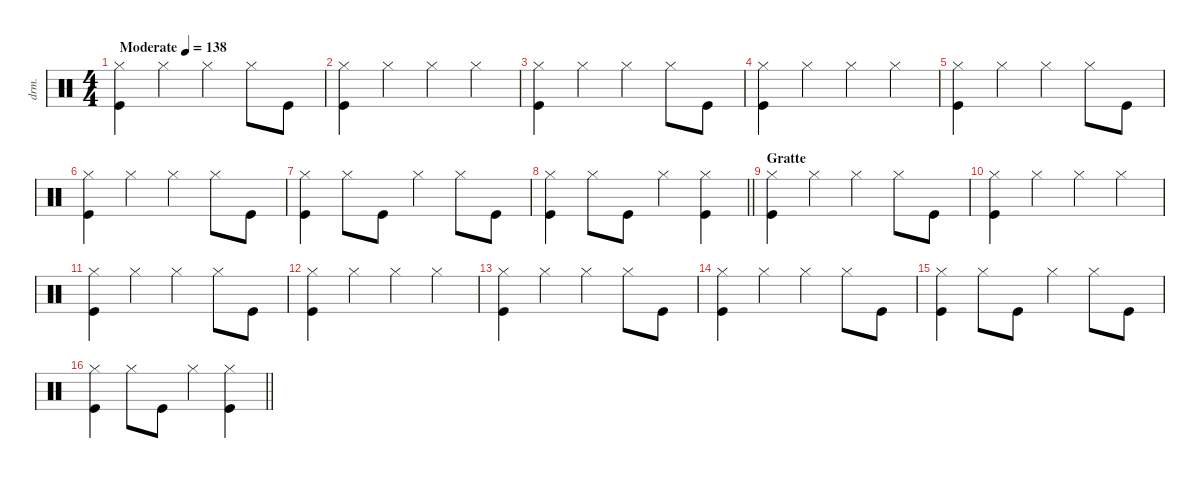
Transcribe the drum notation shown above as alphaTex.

\defaultSystemsLayout 4
\hideDynamics
\bracketExtendMode nobrackets
\track ("Percussions" "drm.") {instrument percussion}
\staff {score}
\articulation defaults
\ts (4 4)
\beaming (8 2 2 2 2)
\tempo (138 "Moderate")
\clef neutral
\ks aminor
("Hi-Hat (closed)" "Kick (hit)").4{dy f beam Down} "Hi-Hat (closed)".4{beam Down} "Hi-Hat (closed)".4{beam Down} "Hi-Hat (closed)".8{beam Down} "Kick (hit)".8{beam Down} |
("Hi-Hat (closed)" "Kick (hit)").4{beam Down} "Hi-Hat (closed)".4{beam Down} "Hi-Hat (closed)".4{beam Down} "Hi-Hat (closed)".4{beam Down} |
("Hi-Hat (closed)" "Kick (hit)").4{beam Down} "Hi-Hat (closed)".4{beam Down} "Hi-Hat (closed)".4{beam Down} "Hi-Hat (closed)".8{beam Down} "Kick (hit)".8{beam Down} |
("Hi-Hat (closed)" "Kick (hit)").4{beam Down} "Hi-Hat (closed)".4{beam Down} "Hi-Hat (closed)".4{beam Down} "Hi-Hat (closed)".4{beam Down} |
("Hi-Hat (closed)" "Kick (hit)").4{beam Down} "Hi-Hat (closed)".4{beam Down} "Hi-Hat (closed)".4{beam Down} "Hi-Hat (closed)".8{beam Down} "Kick (hit)".8{beam Down} |
("Hi-Hat (closed)" "Kick (hit)").4{beam Down} "Hi-Hat (closed)".4{beam Down} "Hi-Hat (closed)".4{beam Down} "Hi-Hat (closed)".8{beam Down} "Kick (hit)".8{beam Down} |
("Hi-Hat (closed)" "Kick (hit)").4{beam Down} "Hi-Hat (closed)".8{beam Down} "Kick (hit)".8{beam Down} "Hi-Hat (closed)".4{beam Down} "Hi-Hat (closed)".8{beam Down} "Kick (hit)".8{beam Down} |
\barLineRight lightlight
("Hi-Hat (closed)" "Kick (hit)").4{beam Down} "Hi-Hat (closed)".8{beam Down} "Kick (hit)".8{beam Down} "Hi-Hat (closed)".4{beam Down} ("Hi-Hat (closed)" "Kick (hit)").4{beam Down} |
\section ("" "Gratte")
("Hi-Hat (closed)" "Kick (hit)").4{beam Down} "Hi-Hat (closed)".4{beam Down} "Hi-Hat (closed)".4{beam Down} "Hi-Hat (closed)".8{beam Down} "Kick (hit)".8{beam Down} |
("Hi-Hat (closed)" "Kick (hit)").4{beam Down} "Hi-Hat (closed)".4{beam Down} "Hi-Hat (closed)".4{beam Down} "Hi-Hat (closed)".4{beam Down} |
("Hi-Hat (closed)" "Kick (hit)").4{beam Down} "Hi-Hat (closed)".4{beam Down} "Hi-Hat (closed)".4{beam Down} "Hi-Hat (closed)".8{beam Down} "Kick (hit)".8{beam Down} |
("Hi-Hat (closed)" "Kick (hit)").4{beam Down} "Hi-Hat (closed)".4{beam Down} "Hi-Hat (closed)".4{beam Down} "Hi-Hat (closed)".4{beam Down} |
("Hi-Hat (closed)" "Kick (hit)").4{beam Down} "Hi-Hat (closed)".4{beam Down} "Hi-Hat (closed)".4{beam Down} "Hi-Hat (closed)".8{beam Down} "Kick (hit)".8{beam Down} |
("Hi-Hat (closed)" "Kick (hit)").4{beam Down} "Hi-Hat (closed)".4{beam Down} "Hi-Hat (closed)".4{beam Down} "Hi-Hat (closed)".8{beam Down} "Kick (hit)".8{beam Down} |
("Hi-Hat (closed)" "Kick (hit)").4{beam Down} "Hi-Hat (closed)".8{beam Down} "Kick (hit)".8{beam Down} "Hi-Hat (closed)".4{beam Down} "Hi-Hat (closed)".8{beam Down} "Kick (hit)".8{beam Down} |
\barLineRight lightlight
("Hi-Hat (closed)" "Kick (hit)").4{beam Down} "Hi-Hat (closed)".8{beam Down} "Kick (hit)".8{beam Down} "Hi-Hat (closed)".4{beam Down} ("Hi-Hat (closed)" "Kick (hit)").4{beam Down}
